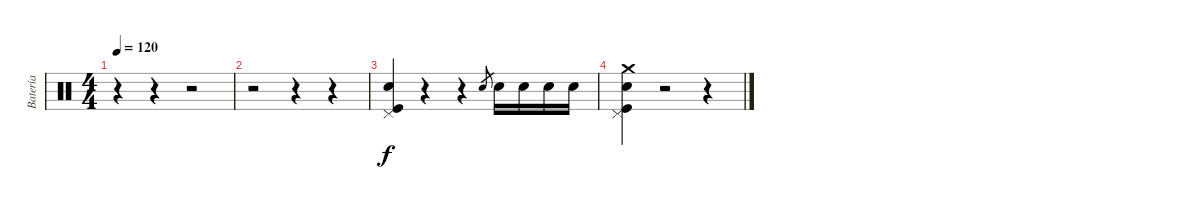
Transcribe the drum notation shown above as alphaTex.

\track ("Batería" "Batería") {instrument percussion}
\staff {score}
\articulation defaults
\ts (4 4)
\tempo 120
\clef neutral
\ks c
r.4{dy f} r.4 r.2 |
r.2 r.4 r.4 |
("Pedal Hi-Hat (hit)" "Electric Snare (hit)" "Kick (hit)").4 r.4 r.4 "Electric Snare (hit)".8{gr} "Electric Snare (hit)".16 "Electric Snare (hit)".16 "Electric Snare (hit)".16 "Electric Snare (hit)".16 |
("Pedal Hi-Hat (hit)" "Crash medium (hit)" "Electric Snare (hit)" "Kick (hit)").4 r.2 r.4
